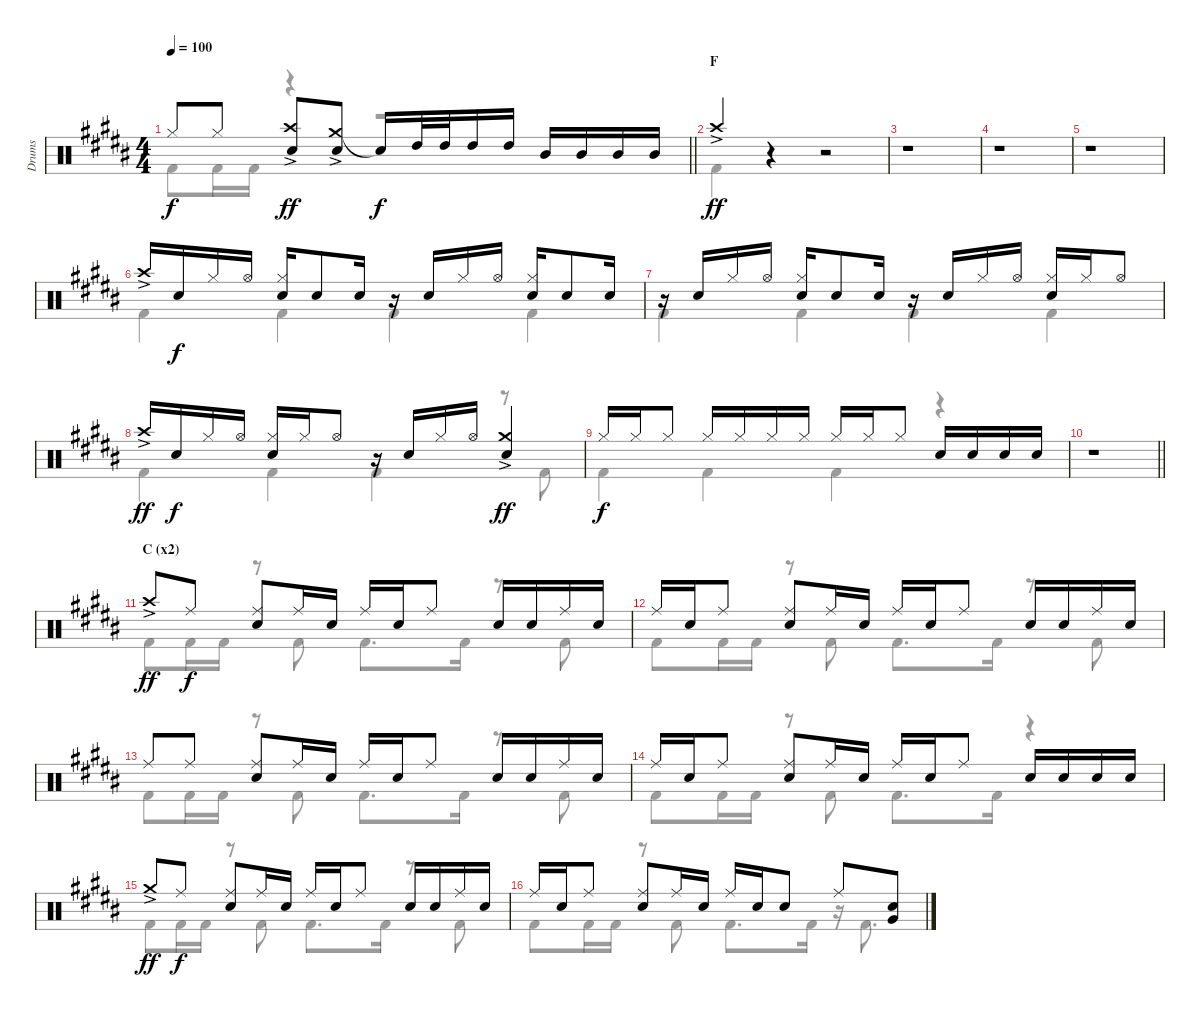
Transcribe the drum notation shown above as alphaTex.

\track ("Drums" "Drums") {instrument percussion}
\staff {score}
\articulation defaults
\voice
\ts (4 4)
\tempo 100
\clef neutral
\barLineRight lightlight
\ks b "Hi-Hat (closed)".8{dy f} "Hi-Hat (closed)".8
("Crash high (hit)"{ac} "Electric Snare (hit)").8{dy ff} ("Crash medium (hit)"{ac} "Electric Snare (hit)").8 "Snare (hit)"{t}.16{dy f} "High Tom (hit)".32 "High Tom (hit)".32 "High Tom (hit)".16 "High Tom (hit)".16 "Mid Tom (hit)".16 "Mid Tom (hit)".16 "Mid Tom (hit)".16 "Mid Tom (hit)".16 |
\section ("" "F")
"Crash high (hit)"{ac}.4{dy ff} r.4 r.2 |
r.1 |
r.1 |
r.1 |
"Crash high (hit)"{ac}.16 "Electric Snare (hit)".16{dy f} "Hi-Hat (closed)".16 "Hi-Hat (open)".16 ("Hi-Hat (closed)" "Electric Snare (hit)").16 "Electric Snare (hit)".8 "Electric Snare (hit)".16 r.16 "Electric Snare (hit)".16 "Hi-Hat (closed)".16 "Hi-Hat (open)".16 ("Hi-Hat (closed)" "Electric Snare (hit)").16 "Electric Snare (hit)".8 "Electric Snare (hit)".16 |
r.16 "Electric Snare (hit)".16 "Hi-Hat (closed)".16 "Hi-Hat (open)".16 ("Hi-Hat (closed)" "Electric Snare (hit)").16 "Electric Snare (hit)".8 "Electric Snare (hit)".16 r.16 "Electric Snare (hit)".16 "Hi-Hat (closed)".16 "Hi-Hat (open)".16 ("Hi-Hat (closed)" "Electric Snare (hit)").16 "Hi-Hat (closed)".16 "Hi-Hat (open)".8 |
"Crash high (hit)"{ac}.16{dy ff} "Electric Snare (hit)".16{dy f} "Hi-Hat (closed)".16 "Hi-Hat (open)".16 ("Hi-Hat (closed)" "Electric Snare (hit)").16 "Hi-Hat (closed)".16 "Hi-Hat (open)".8 r.16 "Electric Snare (hit)".16 "Hi-Hat (closed)".16 "Hi-Hat (open)".16 ("Crash medium (hit)"{ac} "Electric Snare (hit)").4{dy ff} |
"Hi-Hat (closed)".16{dy f} "Hi-Hat (closed)".16 "Hi-Hat (closed)".8 "Hi-Hat (closed)".16 "Hi-Hat (closed)".16 "Hi-Hat (closed)".16 "Hi-Hat (closed)".16 "Hi-Hat (closed)".16 "Hi-Hat (closed)".16 "Hi-Hat (closed)".8 "Electric Snare (hit)".16 "Electric Snare (hit)".16 "Electric Snare (hit)".16 "Electric Snare (hit)".16 |
\barLineRight lightlight
r.1 |
\section ("" "C (x2)")
"Crash high (hit)"{ac}.8{dy ff} "Ride (middle)".8{dy f} ("Ride (middle)" "Electric Snare (hit)").8 "Ride (middle)".16 "Electric Snare (hit)".16 "Ride (middle)".16 "Electric Snare (hit)".16 "Ride (middle)".8 "Electric Snare (hit)".16 "Electric Snare (hit)".16 "Ride (middle)".16 "Electric Snare (hit)".16 |
"Ride (middle)".16 "Electric Snare (hit)".16 "Ride (middle)".8 ("Ride (middle)" "Electric Snare (hit)").8 "Ride (middle)".16 "Electric Snare (hit)".16 "Ride (middle)".16 "Electric Snare (hit)".16 "Ride (middle)".8 "Electric Snare (hit)".16 "Electric Snare (hit)".16 "Ride (middle)".16 "Electric Snare (hit)".16 |
"Ride (middle)".8 "Ride (middle)".8 ("Ride (middle)" "Electric Snare (hit)").8 "Ride (middle)".16 "Electric Snare (hit)".16 "Ride (middle)".16 "Electric Snare (hit)".16 "Ride (middle)".8 "Electric Snare (hit)".16 "Electric Snare (hit)".16 "Ride (middle)".16 "Electric Snare (hit)".16 |
"Ride (middle)".16 "Electric Snare (hit)".16 "Ride (middle)".8 ("Ride (middle)" "Electric Snare (hit)").8 "Ride (middle)".16 "Electric Snare (hit)".16 "Ride (middle)".16 "Electric Snare (hit)".16 "Ride (middle)".8 "Electric Snare (hit)".16 "Electric Snare (hit)".16 "Electric Snare (hit)".16 "Electric Snare (hit)".16 |
"Crash medium (hit)"{ac}.8{dy ff} "Ride (middle)".8{dy f} ("Ride (middle)" "Electric Snare (hit)").8 "Ride (middle)".16 "Electric Snare (hit)".16 "Ride (middle)".16 "Electric Snare (hit)".16 "Ride (middle)".8 "Electric Snare (hit)".16 "Electric Snare (hit)".16 "Ride (middle)".16 "Electric Snare (hit)".16 |
"Ride (middle)".16 "Electric Snare (hit)".16 "Ride (middle)".8 ("Ride (middle)" "Electric Snare (hit)").8 "Ride (middle)".16 "Electric Snare (hit)".16 "Ride (middle)".16 "Electric Snare (hit)".16 "Electric Snare (hit)".8 "Ride (middle)".8 ("Very Low Tom (hit)" "Electric Snare (hit)").8
\voice
\clef neutral
\ottava regular
\simile none
\barLineRight lightlight
\ks b "Kick (hit) 2".8{dy f} "Kick (hit) 2".16 "Kick (hit) 2".16
r.4 r.2 |
"Kick (hit) 2".4 r.4 r.2 |
|
|
|
"Kick (hit) 2".4 "Kick (hit) 2".4 "Kick (hit) 2".4 "Kick (hit) 2".4 |
"Kick (hit) 2".4 "Kick (hit) 2".4 "Kick (hit) 2".4 "Kick (hit) 2".4 |
"Kick (hit) 2".4 "Kick (hit) 2".4 "Kick (hit) 2".4 r.8 "Kick (hit) 2".8 |
"Kick (hit) 2".4 "Kick (hit) 2".4 "Kick (hit) 2".4 r.4 |
\barLineRight lightlight
|
"Kick (hit) 2".8 "Kick (hit) 2".16 "Kick (hit) 2".16 r.8 "Kick (hit) 2".8 "Kick (hit) 2".8{d} "Kick (hit) 2".16 r.8 "Kick (hit) 2".8 |
"Kick (hit) 2".8 "Kick (hit) 2".16 "Kick (hit) 2".16 r.8 "Kick (hit) 2".8 "Kick (hit) 2".8{d} "Kick (hit) 2".16 r.8 "Kick (hit) 2".8 |
"Kick (hit) 2".8 "Kick (hit) 2".16 "Kick (hit) 2".16 r.8 "Kick (hit) 2".8 "Kick (hit) 2".8{d} "Kick (hit) 2".16 r.8 "Kick (hit) 2".8 |
"Kick (hit) 2".8 "Kick (hit) 2".16 "Kick (hit) 2".16 r.8 "Kick (hit) 2".8 "Kick (hit) 2".8{d} "Kick (hit) 2".16 r.4 |
"Kick (hit) 2".8 "Kick (hit) 2".16 "Kick (hit) 2".16 r.8 "Kick (hit) 2".8 "Kick (hit) 2".8{d} "Kick (hit) 2".16 r.8 "Kick (hit) 2".8 |
"Kick (hit) 2".8 "Kick (hit) 2".16 "Kick (hit) 2".16 r.8 "Kick (hit) 2".8 "Kick (hit) 2".8{d} "Kick (hit) 2".16 r.16 "Kick (hit) 2".8{d}
